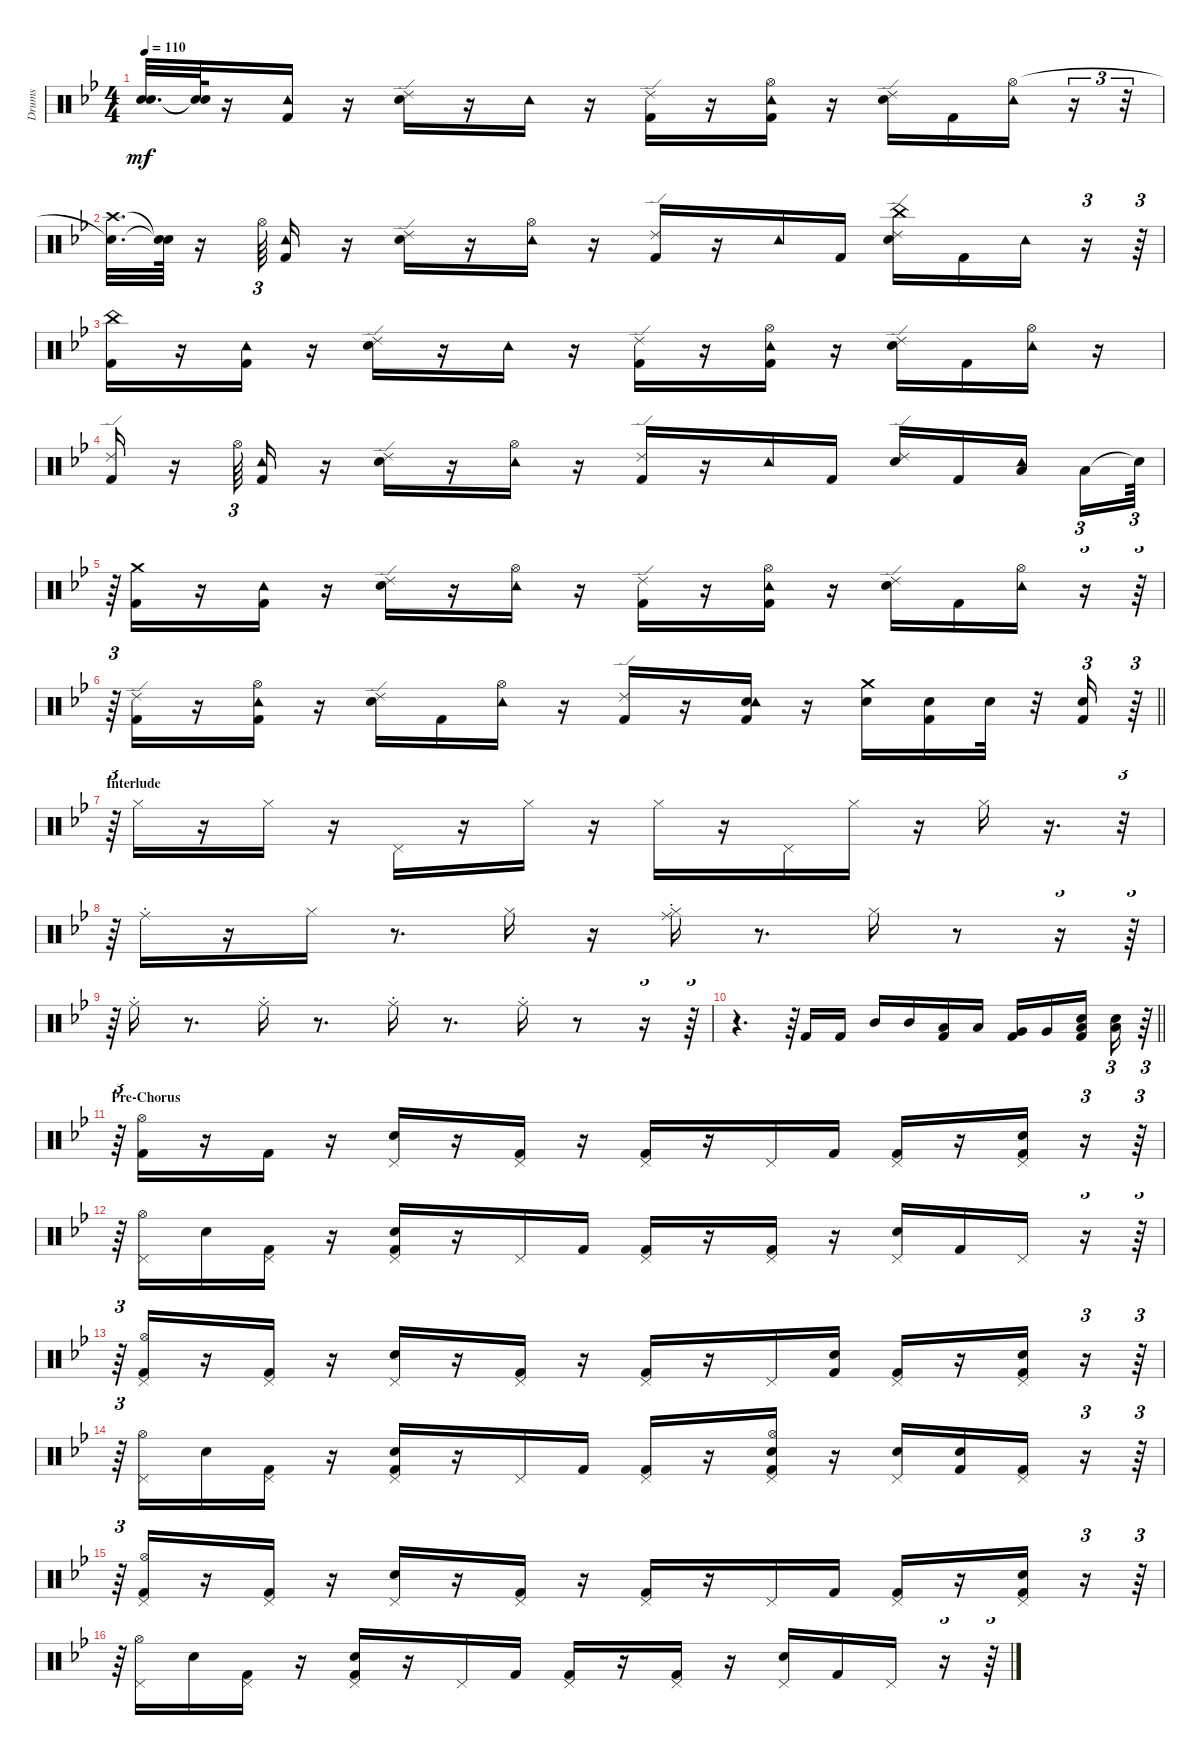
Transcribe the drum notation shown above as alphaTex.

\track ("Drums" "Drums") {instrument percussion}
\staff {score}
\articulation defaults
\ts (4 4)
\tempo 110
\clef neutral
\ks gminor
("Snare (hit)"{t} "Snare (hit)"{t}).32{d dy mf} ("Snare (hit)"{t} "Snare (hit)"{t}).64 r.16 ("Kick (hit) 2" "Tambourine (hit)").16 r.16 ("Snare (hit) 2" "Ride (edge) 2").16 r.16 "Tambourine (hit)".16 r.16 ("Kick (hit) 2" "Ride (edge) 2").16 r.16 ("Kick (hit) 2" "Hi-Hat (open)" "Tambourine (hit)").16 r.16 ("Snare (hit) 2" "Ride (edge) 2").16 "Kick (hit) 2".16 ("Hi-Hat (open)" "Tambourine (hit)").16 r.16{tu (3 2)} r.32{tu (3 2)} |
("Snare (hit)"{t} "Crash high (hit)").32{d} ("Snare (hit)"{t} "Snare (hit)"{t}).64 r.16 "Hi-Hat (open)".64{tu (3 2)} ("Kick (hit) 2" "Tambourine (hit)").16 r.16 ("Snare (hit) 2" "Ride (edge) 2").16 r.16 ("Hi-Hat (open)" "Tambourine (hit)").16 r.16 ("Kick (hit) 2" "Ride (edge) 2").16 r.16 "Tambourine (hit)".16 "Kick (hit) 2".16 ("Snare (hit) 2" "China (hit)" "Ride (edge) 2").16 "Kick (hit) 2".16 "Tambourine (hit)".16 r.16{tu (3 2)} r.64{tu (3 2)} |
("Kick (hit) 2" "China (hit)").16 r.16 ("Kick (hit) 2" "Tambourine (hit)").16 r.16 ("Snare (hit) 2" "Ride (edge) 2").16 r.16 "Tambourine (hit)".16 r.16 ("Kick (hit) 2" "Ride (edge) 2").16 r.16 ("Kick (hit) 2" "Hi-Hat (open)" "Tambourine (hit)").16 r.16 ("Snare (hit) 2" "Ride (edge) 2").16 "Kick (hit) 2".16 ("Hi-Hat (open)" "Tambourine (hit)").16 r.16 |
("Kick (hit) 2" "Ride (edge) 2").16 r.16 "Hi-Hat (open)".64{tu (3 2)} ("Kick (hit) 2" "Tambourine (hit)").16 r.16 ("Snare (hit) 2" "Ride (edge) 2").16 r.16 ("Hi-Hat (open)" "Tambourine (hit)").16 r.16 ("Kick (hit) 2" "Ride (edge) 2").16 r.16 "Tambourine (hit)".16 "Kick (hit) 2".16 ("Snare (hit) 2" "Ride (edge) 2").16 "Kick (hit) 2".16 ("Low Floor Tom (hit)" "Tambourine (hit)").16{beam splitsecondary} "Low Floor Tom (hit)".16{tu (3 2)} "Snare (hit)"{t}.64{tu (3 2)} |
r.64{tu (3 2)} ("Kick (hit) 2" "Crash medium (hit)").16 r.16 ("Kick (hit) 2" "Tambourine (hit)").16 r.16 ("Snare (hit) 2" "Ride (edge) 2").16 r.16 ("Hi-Hat (open)" "Tambourine (hit)").16 r.16 ("Kick (hit) 2" "Ride (edge) 2").16 r.16 ("Kick (hit) 2" "Hi-Hat (open)" "Tambourine (hit)").16 r.16 ("Snare (hit) 2" "Ride (edge) 2").16 "Kick (hit) 2".16 ("Hi-Hat (open)" "Tambourine (hit)").16 r.16{tu (3 2)} r.64{tu (3 2)} |
\barLineRight lightlight
r.64{tu (3 2)} ("Kick (hit) 2" "Ride (edge) 2").16 r.16 ("Kick (hit) 2" "Hi-Hat (open)" "Tambourine (hit)").16 r.16 ("Snare (hit) 2" "Ride (edge) 2").16 "Kick (hit) 2".16 ("Hi-Hat (open)" "Tambourine (hit)").16 r.16 ("Kick (hit) 2" "Ride (edge) 2").16 r.16 ("Kick (hit) 2" "Snare (hit) 2" "Tambourine (hit)").16 r.16 ("Snare (hit) 2" "Crash medium (hit)").16 ("Kick (hit) 2" "Snare (hit) 2").16 "Snare (hit) 2".32 r.32 ("Kick (hit) 2" "Snare (hit) 2").16{tu (3 2)} r.64{tu (3 2)} |
\section ("" "Interlude")
r.64{tu (3 2)} "Hi-Hat (closed)".16 r.16 "Hi-Hat (closed)".16 r.16 "Pedal Hi-Hat (hit)".16 r.16 "Hi-Hat (closed)".16 r.16 "Hi-Hat (closed)".16 r.16 "Pedal Hi-Hat (hit)".16 "Hi-Hat (closed)".16 r.16 "Hi-Hat (closed)".16 r.16{d} r.32{tu (3 2)} |
r.64{tu (3 2)} "Ride (choke)".16 r.16 "Hi-Hat (closed)".16 r.8{d} "Hi-Hat (closed)".16 r.16 ("Hi-Hat (closed)" "Ride (choke)").16 r.8{d} "Hi-Hat (closed)".16 r.8 r.16{tu (3 2)} r.64{tu (3 2)} |
r.64{tu (3 2)} "Ride (choke)".16 r.8{d} "Ride (choke)".16 r.8{d} "Ride (choke)".16 r.8{d} "Ride (choke)".16 r.8 r.16{tu (3 2)} r.64{tu (3 2)} |
\barLineRight lightlight
r.4{d} r.64{tu (3 2)} "Kick (hit) 2".16 "Kick (hit) 2".16 "Mid Tom (hit)".16 "Mid Tom (hit)".16 ("Kick (hit) 2" "Low Tom (hit)").16 "Low Tom (hit)".16 ("Kick (hit) 2" "Very Low Tom (hit)").16 "Very Low Tom (hit)".16 ("Kick (hit) 2" "Snare (hit) 2" "Low Floor Tom (hit)").16{beam splitsecondary} ("Snare (hit) 2" "Low Floor Tom (hit)").16{tu (3 2)} r.64{tu (3 2)} |
\section ("" "Pre-Chorus")
r.64{tu (3 2)} ("Kick (hit) 2" "Hi-Hat (open)").16 r.16 "Kick (hit) 2".16 r.16 ("Snare (hit) 2" "Pedal Hi-Hat (hit)").16 r.16 ("Kick (hit) 2" "Pedal Hi-Hat (hit)").16 r.16 ("Kick (hit) 2" "Pedal Hi-Hat (hit)").16 r.16 "Pedal Hi-Hat (hit)".16 "Kick (hit) 2".16 ("Kick (hit) 2" "Pedal Hi-Hat (hit)").16 r.16 ("Kick (hit) 2" "Snare (hit) 2" "Pedal Hi-Hat (hit)").16 r.16{tu (3 2)} r.64{tu (3 2)} |
r.64{tu (3 2)} ("Pedal Hi-Hat (hit)" "Hi-Hat (open)").16 "Snare (hit) 2".16 ("Kick (hit) 2" "Pedal Hi-Hat (hit)").16 r.16 ("Kick (hit) 2" "Snare (hit) 2" "Pedal Hi-Hat (hit)").16 r.16 "Pedal Hi-Hat (hit)".16 "Kick (hit) 2".16 ("Kick (hit) 2" "Pedal Hi-Hat (hit)").16 r.16 ("Kick (hit) 2" "Pedal Hi-Hat (hit)").16 r.16 ("Snare (hit) 2" "Pedal Hi-Hat (hit)").16 "Kick (hit) 2".16 "Pedal Hi-Hat (hit)".16 r.16{tu (3 2)} r.64{tu (3 2)} |
r.64{tu (3 2)} ("Kick (hit) 2" "Pedal Hi-Hat (hit)" "Hi-Hat (open)").16 r.16 ("Kick (hit) 2" "Pedal Hi-Hat (hit)").16 r.16 ("Snare (hit) 2" "Pedal Hi-Hat (hit)").16 r.16 ("Kick (hit) 2" "Pedal Hi-Hat (hit)").16 r.16 ("Kick (hit) 2" "Pedal Hi-Hat (hit)").16 r.16 "Pedal Hi-Hat (hit)".16 ("Kick (hit) 2" "Snare (hit) 2").16 ("Kick (hit) 2" "Pedal Hi-Hat (hit)").16 r.16 ("Kick (hit) 2" "Snare (hit) 2" "Pedal Hi-Hat (hit)").16 r.16{tu (3 2)} r.64{tu (3 2)} |
r.64{tu (3 2)} ("Pedal Hi-Hat (hit)" "Hi-Hat (open)").16 "Snare (hit) 2".16 ("Kick (hit) 2" "Pedal Hi-Hat (hit)").16 r.16 ("Kick (hit) 2" "Snare (hit) 2" "Pedal Hi-Hat (hit)").16 r.16 "Pedal Hi-Hat (hit)".16 "Kick (hit) 2".16 ("Kick (hit) 2" "Pedal Hi-Hat (hit)").16 r.16 ("Kick (hit) 2" "Snare (hit) 2" "Pedal Hi-Hat (hit)" "Hi-Hat (open)").16 r.16 ("Snare (hit) 2" "Pedal Hi-Hat (hit)").16 ("Kick (hit) 2" "Snare (hit) 2").16 ("Kick (hit) 2" "Pedal Hi-Hat (hit)").16 r.16{tu (3 2)} r.64{tu (3 2)} |
r.64{tu (3 2)} ("Kick (hit) 2" "Pedal Hi-Hat (hit)" "Hi-Hat (open)").16 r.16 ("Kick (hit) 2" "Pedal Hi-Hat (hit)").16 r.16 ("Snare (hit) 2" "Pedal Hi-Hat (hit)").16 r.16 ("Kick (hit) 2" "Pedal Hi-Hat (hit)").16 r.16 ("Kick (hit) 2" "Pedal Hi-Hat (hit)").16 r.16 "Pedal Hi-Hat (hit)".16 "Kick (hit) 2".16 ("Kick (hit) 2" "Pedal Hi-Hat (hit)").16 r.16 ("Kick (hit) 2" "Snare (hit) 2" "Pedal Hi-Hat (hit)").16 r.16{tu (3 2)} r.64{tu (3 2)} |
r.64{tu (3 2)} ("Pedal Hi-Hat (hit)" "Hi-Hat (open)").16 "Snare (hit) 2".16 ("Kick (hit) 2" "Pedal Hi-Hat (hit)").16 r.16 ("Kick (hit) 2" "Snare (hit) 2" "Pedal Hi-Hat (hit)").16 r.16 "Pedal Hi-Hat (hit)".16 "Kick (hit) 2".16 ("Kick (hit) 2" "Pedal Hi-Hat (hit)").16 r.16 ("Kick (hit) 2" "Pedal Hi-Hat (hit)").16 r.16 ("Snare (hit) 2" "Pedal Hi-Hat (hit)").16 "Kick (hit) 2".16 "Pedal Hi-Hat (hit)".16 r.16{tu (3 2)} r.64{tu (3 2)}
